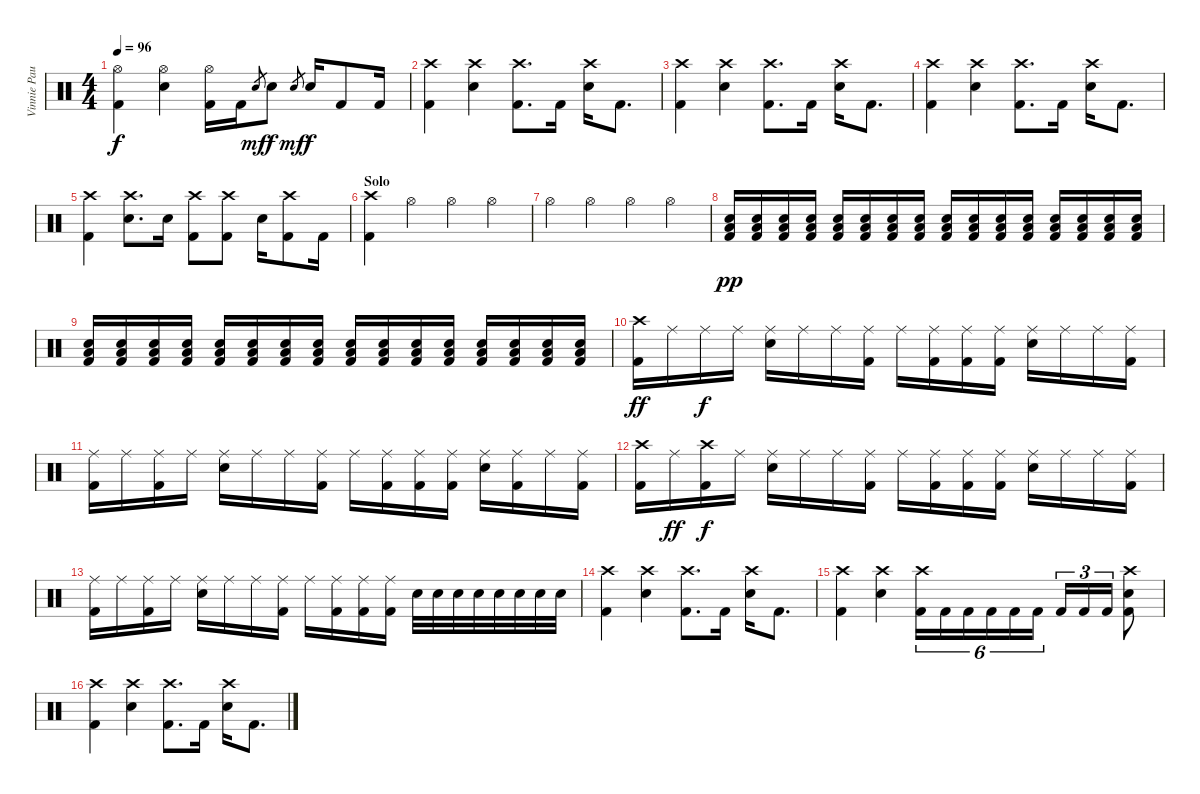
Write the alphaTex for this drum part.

\track ("Vinnie Paul" "Vinnie Pau") {instrument percussion}
\staff {score}
\articulation defaults
\ts (4 4)
\tempo 96
\clef neutral
\ks c
("Kick (hit) 2" "Hi-Hat (open)").4{dy f} ("Snare (hit) 2" "Hi-Hat (open)").4 ("Kick (hit) 2" "Hi-Hat (open)").16 "Kick (hit) 2".16 "Snare (hit)".8{gr dy mf} "Snare (hit) 2".8{dy f} "Snare (hit)".8{gr dy mf} "Snare (hit) 2".16{dy f} "Kick (hit) 2".8 "Kick (hit) 2".16 |
("Crash high (hit)" "Kick (hit) 2").4 ("Crash high (hit)" "Snare (hit) 2").4 ("Crash high (hit)" "Kick (hit) 2").8{d} "Kick (hit) 2".16 ("Crash high (hit)" "Snare (hit) 2").16 "Kick (hit) 2".8{d} |
("Crash high (hit)" "Kick (hit) 2").4 ("Crash high (hit)" "Snare (hit) 2").4 ("Crash high (hit)" "Kick (hit) 2").8{d} "Kick (hit) 2".16 ("Crash high (hit)" "Snare (hit) 2").16 "Kick (hit) 2".8{d} |
("Crash high (hit)" "Kick (hit) 2").4 ("Crash high (hit)" "Snare (hit) 2").4 ("Crash high (hit)" "Kick (hit) 2").8{d} "Kick (hit) 2".16 ("Crash high (hit)" "Snare (hit) 2").16 "Kick (hit) 2".8{d} |
("Crash high (hit)" "Kick (hit) 2").4 ("Crash high (hit)" "Snare (hit) 2").8{d} "Snare (hit) 2".16 ("Crash high (hit)" "Kick (hit) 2").8 ("Crash high (hit)" "Kick (hit) 2").8 "Snare (hit) 2".16 ("Crash high (hit)" "Kick (hit) 2").8 "Kick (hit) 2".16 |
\section ("" "Solo")
("Crash high (hit)" "Kick (hit) 2").4 "Hi-Hat (open)".4 "Hi-Hat (open)".4 "Hi-Hat (open)".4 |
"Hi-Hat (open)".4 "Hi-Hat (open)".4 "Hi-Hat (open)".4 "Hi-Hat (open)".4 |
("Snare (hit) 2" "Low Tom (hit)" "Kick (hit) 2").16{dy pp} ("Snare (hit) 2" "Low Tom (hit)" "Kick (hit) 2").16 ("Snare (hit) 2" "Low Tom (hit)" "Kick (hit) 2").16 ("Snare (hit) 2" "Low Tom (hit)" "Kick (hit) 2").16 ("Snare (hit) 2" "Low Tom (hit)" "Kick (hit) 2").16 ("Snare (hit) 2" "Low Tom (hit)" "Kick (hit) 2").16 ("Snare (hit) 2" "Low Tom (hit)" "Kick (hit) 2").16 ("Snare (hit) 2" "Low Tom (hit)" "Kick (hit) 2").16 ("Snare (hit) 2" "Low Tom (hit)" "Kick (hit) 2").16 ("Snare (hit) 2" "Low Tom (hit)" "Kick (hit) 2").16 ("Snare (hit) 2" "Low Tom (hit)" "Kick (hit) 2").16 ("Snare (hit) 2" "Low Tom (hit)" "Kick (hit) 2").16 ("Snare (hit) 2" "Low Tom (hit)" "Kick (hit) 2").16 ("Snare (hit) 2" "Low Tom (hit)" "Kick (hit) 2").16 ("Snare (hit) 2" "Low Tom (hit)" "Kick (hit) 2").16 ("Snare (hit) 2" "Low Tom (hit)" "Kick (hit) 2").16 |
("Snare (hit) 2" "Low Tom (hit)" "Kick (hit) 2").16 ("Snare (hit) 2" "Low Tom (hit)" "Kick (hit) 2").16 ("Snare (hit) 2" "Low Tom (hit)" "Kick (hit) 2").16 ("Snare (hit) 2" "Low Tom (hit)" "Kick (hit) 2").16 ("Snare (hit) 2" "Low Tom (hit)" "Kick (hit) 2").16 ("Snare (hit) 2" "Low Tom (hit)" "Kick (hit) 2").16 ("Snare (hit) 2" "Low Tom (hit)" "Kick (hit) 2").16 ("Snare (hit) 2" "Low Tom (hit)" "Kick (hit) 2").16 ("Snare (hit) 2" "Low Tom (hit)" "Kick (hit) 2").16 ("Snare (hit) 2" "Low Tom (hit)" "Kick (hit) 2").16 ("Snare (hit) 2" "Low Tom (hit)" "Kick (hit) 2").16 ("Snare (hit) 2" "Low Tom (hit)" "Kick (hit) 2").16 ("Snare (hit) 2" "Low Tom (hit)" "Kick (hit) 2").16 ("Snare (hit) 2" "Low Tom (hit)" "Kick (hit) 2").16 ("Snare (hit) 2" "Low Tom (hit)" "Kick (hit) 2").16 ("Snare (hit) 2" "Low Tom (hit)" "Kick (hit) 2").16 |
("Crash high (hit)" "Kick (hit) 2").16{dy ff} "Ride (middle)".16 "Ride (middle)".16{dy f} "Ride (middle)".16 ("Ride (middle)" "Snare (hit) 2").16 "Ride (middle)".16 "Ride (middle)".16 ("Ride (middle)" "Kick (hit) 2").16 "Ride (middle)".16 ("Ride (middle)" "Kick (hit) 2").16 ("Ride (middle)" "Kick (hit) 2").16 ("Ride (middle)" "Kick (hit) 2").16 ("Ride (middle)" "Snare (hit) 2").16 "Ride (middle)".16 "Ride (middle)".16 ("Ride (middle)" "Kick (hit) 2").16 |
("Ride (middle)" "Kick (hit) 2").16 "Ride (middle)".16 ("Ride (middle)" "Kick (hit) 2").16 "Ride (middle)".16 ("Ride (middle)" "Snare (hit) 2").16 "Ride (middle)".16 "Ride (middle)".16 ("Ride (middle)" "Kick (hit) 2").16 "Ride (middle)".16 ("Ride (middle)" "Kick (hit) 2").16 ("Ride (middle)" "Kick (hit) 2").16 ("Ride (middle)" "Kick (hit) 2").16 ("Ride (middle)" "Snare (hit) 2").16 ("Ride (middle)" "Kick (hit) 2").16 "Ride (middle)".16 ("Ride (middle)" "Kick (hit) 2").16 |
("Crash high (hit)" "Kick (hit) 2").16 "Ride (middle)".16{dy ff} ("Crash high (hit)" "Kick (hit) 2").16{dy f} "Ride (middle)".16 ("Ride (middle)" "Snare (hit) 2").16 "Ride (middle)".16 "Ride (middle)".16 ("Ride (middle)" "Kick (hit) 2").16 "Ride (middle)".16 ("Ride (middle)" "Kick (hit) 2").16 ("Ride (middle)" "Kick (hit) 2").16 ("Ride (middle)" "Kick (hit) 2").16 ("Ride (middle)" "Snare (hit) 2").16 "Ride (middle)".16 "Ride (middle)".16 ("Ride (middle)" "Kick (hit) 2").16 |
("Ride (middle)" "Kick (hit) 2").16 "Ride (middle)".16 ("Ride (middle)" "Kick (hit) 2").16 "Ride (middle)".16 ("Ride (middle)" "Snare (hit) 2").16 "Ride (middle)".16 "Ride (middle)".16 ("Ride (middle)" "Kick (hit) 2").16 "Ride (middle)".16 ("Ride (middle)" "Kick (hit) 2").16 ("Ride (middle)" "Kick (hit) 2").16 ("Ride (middle)" "Kick (hit) 2").16 "Snare (hit) 2".32 "Snare (hit) 2".32 "Snare (hit) 2".32 "Snare (hit) 2".32 "Snare (hit) 2".32 "Snare (hit) 2".32 "Snare (hit) 2".32 "Snare (hit) 2".32 |
("Crash high (hit)" "Kick (hit) 2").4 ("Crash high (hit)" "Snare (hit) 2").4 ("Crash high (hit)" "Kick (hit) 2").8{d} "Kick (hit) 2".16 ("Crash high (hit)" "Snare (hit) 2").16 "Kick (hit) 2".8{d} |
("Crash high (hit)" "Kick (hit) 2").4 ("Crash high (hit)" "Snare (hit) 2").4 ("Kick (hit) 2" "Crash high (hit)").16{tu (6 4)} "Kick (hit) 2".16{tu (6 4)} "Kick (hit) 2".16{tu (6 4)} "Kick (hit) 2".16{tu (6 4)} "Kick (hit) 2".16{tu (6 4)} "Kick (hit) 2".16{tu (6 4)} "Kick (hit) 2".16{tu (3 2)} "Kick (hit) 2".16{tu (3 2)} "Kick (hit) 2".16{tu (3 2)} ("Crash high (hit)" "Snare (hit) 2" "Kick (hit) 2").8 |
("Crash high (hit)" "Kick (hit) 2").4 ("Crash high (hit)" "Snare (hit) 2").4 ("Crash high (hit)" "Kick (hit) 2").8{d} "Kick (hit) 2".16 ("Crash high (hit)" "Snare (hit) 2").16 "Kick (hit) 2".8{d}
